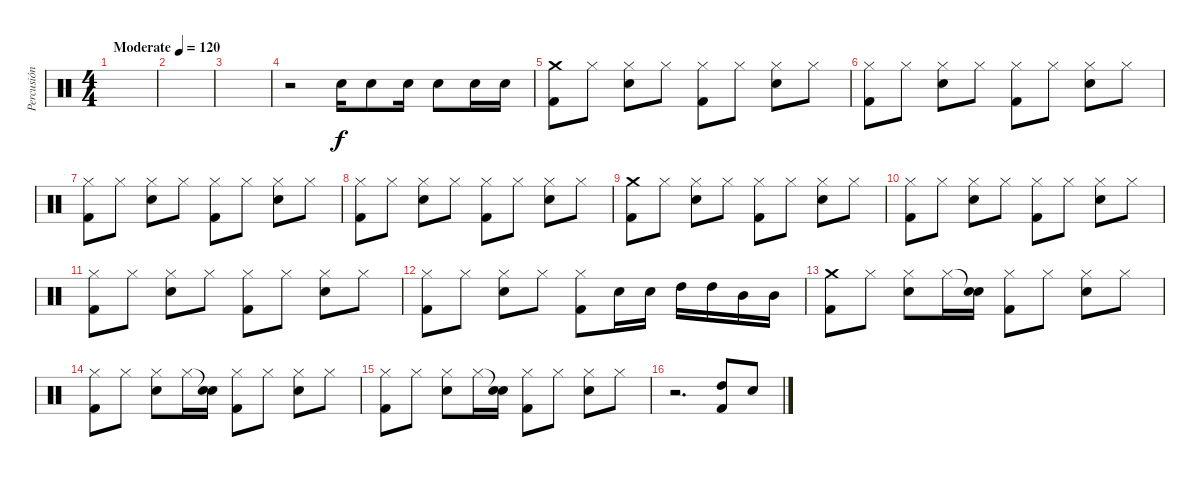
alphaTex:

\track ("Percusión" "Percusión") {instrument percussion}
\staff {score}
\articulation defaults
\ts (4 4)
\tempo (120 "Moderate")
\clef neutral
\ks c
|
|
|
r.2 "Electric Snare (hit)".16 "Electric Snare (hit)".8 "Electric Snare (hit)".16 "Electric Snare (hit)".8 "Electric Snare (hit)".16 "Electric Snare (hit)".16 |
("Crash medium (hit)" "Kick (hit) 2").8 "Hi-Hat (closed)".8 ("Hi-Hat (closed)" "Electric Snare (hit)").8 "Hi-Hat (closed)".8 ("Hi-Hat (closed)" "Kick (hit) 2").8 "Hi-Hat (closed)".8 ("Hi-Hat (closed)" "Electric Snare (hit)").8 "Hi-Hat (closed)".8 |
("Hi-Hat (closed)" "Kick (hit) 2").8 "Hi-Hat (closed)".8 ("Hi-Hat (closed)" "Electric Snare (hit)").8 "Hi-Hat (closed)".8 ("Hi-Hat (closed)" "Kick (hit) 2").8 "Hi-Hat (closed)".8 ("Hi-Hat (closed)" "Electric Snare (hit)").8 "Hi-Hat (closed)".8 |
("Hi-Hat (closed)" "Kick (hit) 2").8 "Hi-Hat (closed)".8 ("Hi-Hat (closed)" "Electric Snare (hit)").8 "Hi-Hat (closed)".8 ("Hi-Hat (closed)" "Kick (hit) 2").8 "Hi-Hat (closed)".8 ("Hi-Hat (closed)" "Electric Snare (hit)").8 "Hi-Hat (closed)".8 |
("Hi-Hat (closed)" "Kick (hit) 2").8 "Hi-Hat (closed)".8 ("Hi-Hat (closed)" "Electric Snare (hit)").8 "Hi-Hat (closed)".8 ("Hi-Hat (closed)" "Kick (hit) 2").8 "Hi-Hat (closed)".8 ("Hi-Hat (closed)" "Electric Snare (hit)").8 "Hi-Hat (closed)".8 |
("Crash medium (hit)" "Kick (hit) 2").8 "Hi-Hat (closed)".8 ("Hi-Hat (closed)" "Electric Snare (hit)").8 "Hi-Hat (closed)".8 ("Hi-Hat (closed)" "Kick (hit) 2").8 "Hi-Hat (closed)".8 ("Hi-Hat (closed)" "Electric Snare (hit)").8 "Hi-Hat (closed)".8 |
("Hi-Hat (closed)" "Kick (hit) 2").8 "Hi-Hat (closed)".8 ("Hi-Hat (closed)" "Electric Snare (hit)").8 "Hi-Hat (closed)".8 ("Hi-Hat (closed)" "Kick (hit) 2").8 "Hi-Hat (closed)".8 ("Hi-Hat (closed)" "Electric Snare (hit)").8 "Hi-Hat (closed)".8 |
("Hi-Hat (closed)" "Kick (hit) 2").8 "Hi-Hat (closed)".8 ("Hi-Hat (closed)" "Electric Snare (hit)").8 "Hi-Hat (closed)".8 ("Hi-Hat (closed)" "Kick (hit) 2").8 "Hi-Hat (closed)".8 ("Hi-Hat (closed)" "Electric Snare (hit)").8 "Hi-Hat (closed)".8 |
("Hi-Hat (closed)" "Kick (hit) 2").8 "Hi-Hat (closed)".8 ("Hi-Hat (closed)" "Electric Snare (hit)").8 "Hi-Hat (closed)".8 ("Hi-Hat (closed)" "Kick (hit) 2").8 "Electric Snare (hit)".16 "Electric Snare (hit)".16 "High Tom (hit)".16 "High Tom (hit)".16 "Mid Tom (hit)".16 "Mid Tom (hit)".16 |
("Crash medium (hit)" "Kick (hit) 2").8 "Hi-Hat (closed)".8 ("Hi-Hat (closed)" "Electric Snare (hit)").8 "Hi-Hat (closed)".16 ("Snare (hit)"{t} "Electric Snare (hit)").16 ("Hi-Hat (closed)" "Kick (hit) 2").8 "Hi-Hat (closed)".8 ("Hi-Hat (closed)" "Electric Snare (hit)").8 "Hi-Hat (closed)".8 |
("Hi-Hat (closed)" "Kick (hit) 2").8 "Hi-Hat (closed)".8 ("Hi-Hat (closed)" "Electric Snare (hit)").8 "Hi-Hat (closed)".16 ("Snare (hit)"{t} "Electric Snare (hit)").16 ("Hi-Hat (closed)" "Kick (hit) 2").8 "Hi-Hat (closed)".8 ("Hi-Hat (closed)" "Electric Snare (hit)").8 "Hi-Hat (closed)".8 |
("Hi-Hat (closed)" "Kick (hit) 2").8 "Hi-Hat (closed)".8 ("Hi-Hat (closed)" "Electric Snare (hit)").8 "Hi-Hat (closed)".16 ("Snare (hit)"{t} "Electric Snare (hit)").16 ("Hi-Hat (closed)" "Kick (hit) 2").8 "Hi-Hat (closed)".8 ("Hi-Hat (closed)" "Electric Snare (hit)").8 "Hi-Hat (closed)".8 |
r.2{d} ("High Tom (hit)" "Kick (hit) 2").8 "Electric Snare (hit)".8
